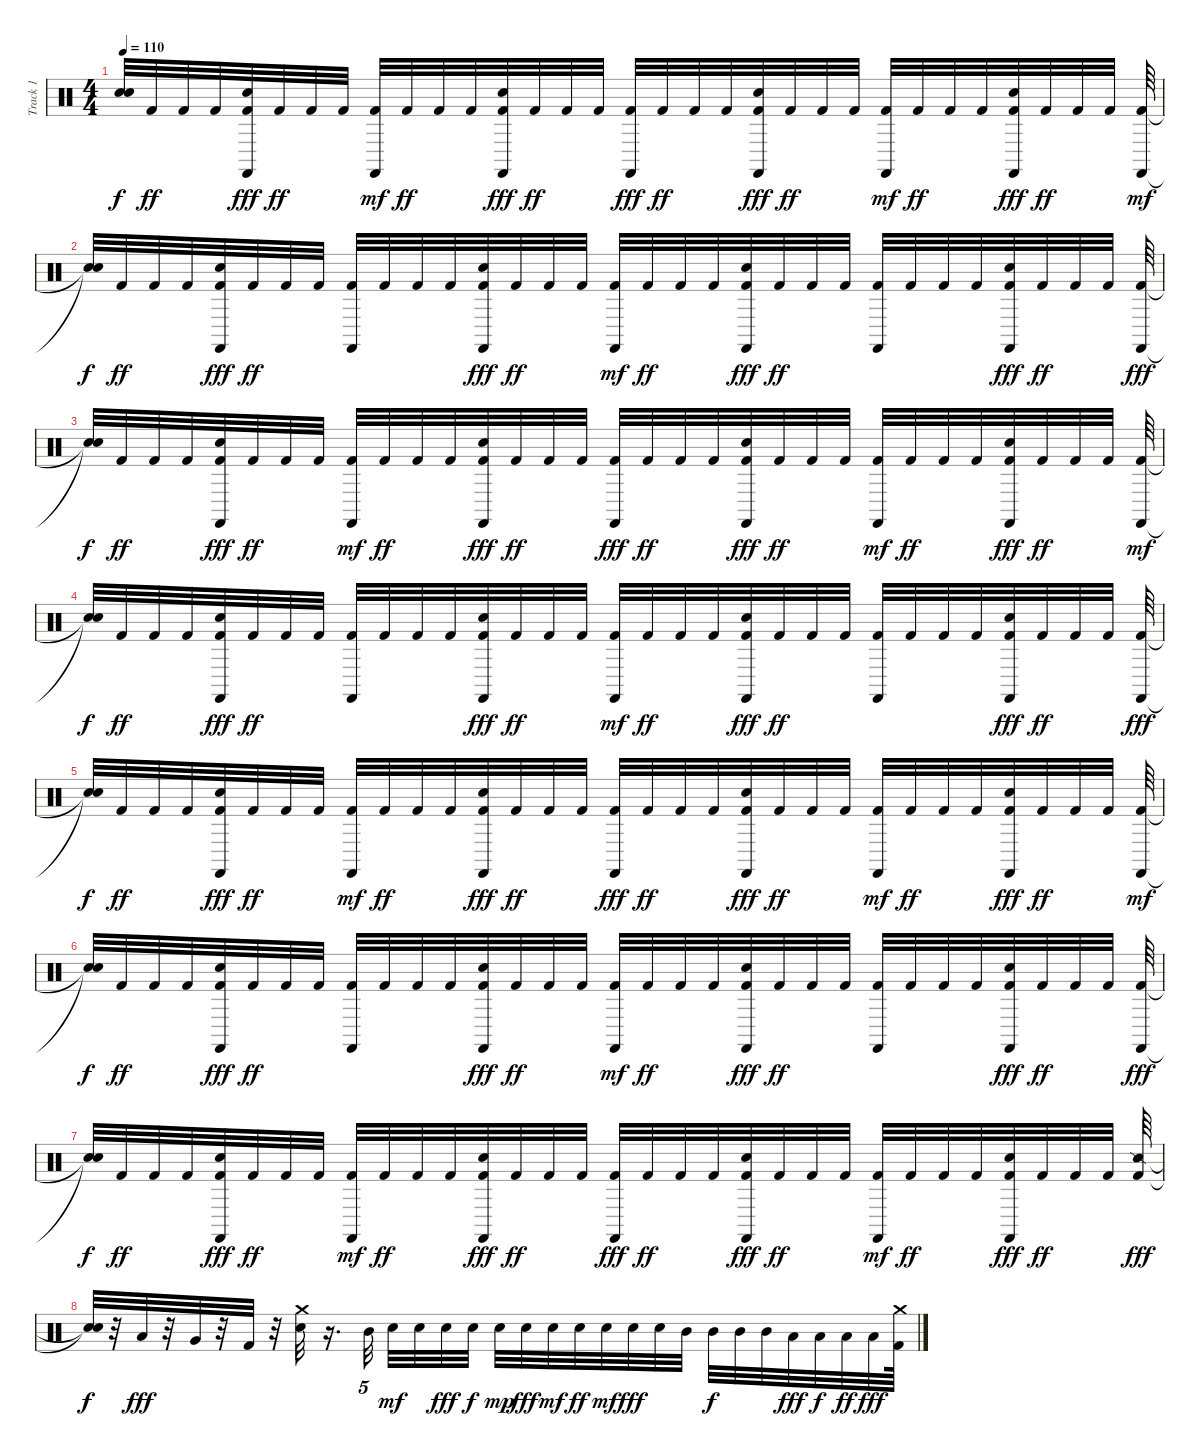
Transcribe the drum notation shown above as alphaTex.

\track ("Track 1" "Track 1") {mute instrument percussion}
\staff {score}
\articulation defaults
\ts (4 4)
\tempo 110
\clef neutral
\ks c
("Snare (hit)"{t} "Snare (hit)"{t}).32{dy f} "Kick (hit) 2".32{dy ff} "Kick (hit) 2".32 "Kick (hit) 2".32 ("Kick (hit) 2" "Castanets (hit)" "Snare (hit) 2").32{dy fff} "Kick (hit) 2".32{dy ff} "Kick (hit) 2".32 "Kick (hit) 2".32 ("Kick (hit) 2" "Castanets (hit)").32{dy mf} "Kick (hit) 2".32{dy ff} "Kick (hit) 2".32 "Kick (hit) 2".32 ("Kick (hit) 2" "Castanets (hit)" "Snare (hit) 2").32{dy fff} "Kick (hit) 2".32{dy ff} "Kick (hit) 2".32 "Kick (hit) 2".32 ("Castanets (hit)" "Kick (hit) 2").32{dy fff} "Kick (hit) 2".32{dy ff} "Kick (hit) 2".32 "Kick (hit) 2".32 ("Snare (hit) 2" "Kick (hit) 2" "Castanets (hit)").32{dy fff} "Kick (hit) 2".32{dy ff} "Kick (hit) 2".32 "Kick (hit) 2".32 ("Kick (hit) 2" "Castanets (hit)").32{dy mf} "Kick (hit) 2".32{dy ff} "Kick (hit) 2".32 "Kick (hit) 2".32 ("Kick (hit) 2" "Castanets (hit)" "Snare (hit) 2").32{dy fff} "Kick (hit) 2".32{dy ff} "Kick (hit) 2".32 "Kick (hit) 2".32 ("Kick (hit) 2" "Castanets (hit)").64{dy mf} |
("Snare (hit)"{t} "Snare (hit)"{t}).32{dy f} "Kick (hit) 2".32{dy ff} "Kick (hit) 2".32 "Kick (hit) 2".32 ("Kick (hit) 2" "Castanets (hit)" "Snare (hit) 2").32{dy fff} "Kick (hit) 2".32{dy ff} "Kick (hit) 2".32 "Kick (hit) 2".32 ("Castanets (hit)" "Kick (hit) 2").32 "Kick (hit) 2".32 "Kick (hit) 2".32 "Kick (hit) 2".32 ("Kick (hit) 2" "Castanets (hit)" "Snare (hit) 2").32{dy fff} "Kick (hit) 2".32{dy ff} "Kick (hit) 2".32 "Kick (hit) 2".32 ("Kick (hit) 2" "Castanets (hit)").32{dy mf} "Kick (hit) 2".32{dy ff} "Kick (hit) 2".32 "Kick (hit) 2".32 ("Kick (hit) 2" "Castanets (hit)" "Snare (hit) 2").32{dy fff} "Kick (hit) 2".32{dy ff} "Kick (hit) 2".32 "Kick (hit) 2".32 ("Castanets (hit)" "Kick (hit) 2").32 "Kick (hit) 2".32 "Kick (hit) 2".32 "Kick (hit) 2".32 ("Kick (hit) 2" "Snare (hit) 2" "Castanets (hit)").32{dy fff} "Kick (hit) 2".32{dy ff} "Kick (hit) 2".32 "Kick (hit) 2".32 ("Castanets (hit)" "Kick (hit) 2").64{dy fff} |
("Snare (hit)"{t} "Snare (hit)"{t}).32{dy f} "Kick (hit) 2".32{dy ff} "Kick (hit) 2".32 "Kick (hit) 2".32 ("Kick (hit) 2" "Castanets (hit)" "Snare (hit) 2").32{dy fff} "Kick (hit) 2".32{dy ff} "Kick (hit) 2".32 "Kick (hit) 2".32 ("Kick (hit) 2" "Castanets (hit)").32{dy mf} "Kick (hit) 2".32{dy ff} "Kick (hit) 2".32 "Kick (hit) 2".32 ("Kick (hit) 2" "Castanets (hit)" "Snare (hit) 2").32{dy fff} "Kick (hit) 2".32{dy ff} "Kick (hit) 2".32 "Kick (hit) 2".32 ("Castanets (hit)" "Kick (hit) 2").32{dy fff} "Kick (hit) 2".32{dy ff} "Kick (hit) 2".32 "Kick (hit) 2".32 ("Snare (hit) 2" "Kick (hit) 2" "Castanets (hit)").32{dy fff} "Kick (hit) 2".32{dy ff} "Kick (hit) 2".32 "Kick (hit) 2".32 ("Kick (hit) 2" "Castanets (hit)").32{dy mf} "Kick (hit) 2".32{dy ff} "Kick (hit) 2".32 "Kick (hit) 2".32 ("Kick (hit) 2" "Castanets (hit)" "Snare (hit) 2").32{dy fff} "Kick (hit) 2".32{dy ff} "Kick (hit) 2".32 "Kick (hit) 2".32 ("Kick (hit) 2" "Castanets (hit)").64{dy mf} |
("Snare (hit)"{t} "Snare (hit)"{t}).32{dy f} "Kick (hit) 2".32{dy ff} "Kick (hit) 2".32 "Kick (hit) 2".32 ("Kick (hit) 2" "Castanets (hit)" "Snare (hit) 2").32{dy fff} "Kick (hit) 2".32{dy ff} "Kick (hit) 2".32 "Kick (hit) 2".32 ("Castanets (hit)" "Kick (hit) 2").32 "Kick (hit) 2".32 "Kick (hit) 2".32 "Kick (hit) 2".32 ("Kick (hit) 2" "Castanets (hit)" "Snare (hit) 2").32{dy fff} "Kick (hit) 2".32{dy ff} "Kick (hit) 2".32 "Kick (hit) 2".32 ("Kick (hit) 2" "Castanets (hit)").32{dy mf} "Kick (hit) 2".32{dy ff} "Kick (hit) 2".32 "Kick (hit) 2".32 ("Kick (hit) 2" "Castanets (hit)" "Snare (hit) 2").32{dy fff} "Kick (hit) 2".32{dy ff} "Kick (hit) 2".32 "Kick (hit) 2".32 ("Castanets (hit)" "Kick (hit) 2").32 "Kick (hit) 2".32 "Kick (hit) 2".32 "Kick (hit) 2".32 ("Kick (hit) 2" "Snare (hit) 2" "Castanets (hit)").32{dy fff} "Kick (hit) 2".32{dy ff} "Kick (hit) 2".32 "Kick (hit) 2".32 ("Castanets (hit)" "Kick (hit) 2").64{dy fff} |
("Snare (hit)"{t} "Snare (hit)"{t}).32{dy f} "Kick (hit) 2".32{dy ff} "Kick (hit) 2".32 "Kick (hit) 2".32 ("Kick (hit) 2" "Castanets (hit)" "Snare (hit) 2").32{dy fff} "Kick (hit) 2".32{dy ff} "Kick (hit) 2".32 "Kick (hit) 2".32 ("Kick (hit) 2" "Castanets (hit)").32{dy mf} "Kick (hit) 2".32{dy ff} "Kick (hit) 2".32 "Kick (hit) 2".32 ("Kick (hit) 2" "Castanets (hit)" "Snare (hit) 2").32{dy fff} "Kick (hit) 2".32{dy ff} "Kick (hit) 2".32 "Kick (hit) 2".32 ("Castanets (hit)" "Kick (hit) 2").32{dy fff} "Kick (hit) 2".32{dy ff} "Kick (hit) 2".32 "Kick (hit) 2".32 ("Snare (hit) 2" "Kick (hit) 2" "Castanets (hit)").32{dy fff} "Kick (hit) 2".32{dy ff} "Kick (hit) 2".32 "Kick (hit) 2".32 ("Kick (hit) 2" "Castanets (hit)").32{dy mf} "Kick (hit) 2".32{dy ff} "Kick (hit) 2".32 "Kick (hit) 2".32 ("Kick (hit) 2" "Castanets (hit)" "Snare (hit) 2").32{dy fff} "Kick (hit) 2".32{dy ff} "Kick (hit) 2".32 "Kick (hit) 2".32 ("Kick (hit) 2" "Castanets (hit)").64{dy mf} |
("Snare (hit)"{t} "Snare (hit)"{t}).32{dy f} "Kick (hit) 2".32{dy ff} "Kick (hit) 2".32 "Kick (hit) 2".32 ("Kick (hit) 2" "Castanets (hit)" "Snare (hit) 2").32{dy fff} "Kick (hit) 2".32{dy ff} "Kick (hit) 2".32 "Kick (hit) 2".32 ("Castanets (hit)" "Kick (hit) 2").32 "Kick (hit) 2".32 "Kick (hit) 2".32 "Kick (hit) 2".32 ("Kick (hit) 2" "Castanets (hit)" "Snare (hit) 2").32{dy fff} "Kick (hit) 2".32{dy ff} "Kick (hit) 2".32 "Kick (hit) 2".32 ("Kick (hit) 2" "Castanets (hit)").32{dy mf} "Kick (hit) 2".32{dy ff} "Kick (hit) 2".32 "Kick (hit) 2".32 ("Kick (hit) 2" "Castanets (hit)" "Snare (hit) 2").32{dy fff} "Kick (hit) 2".32{dy ff} "Kick (hit) 2".32 "Kick (hit) 2".32 ("Castanets (hit)" "Kick (hit) 2").32 "Kick (hit) 2".32 "Kick (hit) 2".32 "Kick (hit) 2".32 ("Kick (hit) 2" "Snare (hit) 2" "Castanets (hit)").32{dy fff} "Kick (hit) 2".32{dy ff} "Kick (hit) 2".32 "Kick (hit) 2".32 ("Castanets (hit)" "Kick (hit) 2").64{dy fff} |
("Snare (hit)"{t} "Snare (hit)"{t}).32{dy f} "Kick (hit) 2".32{dy ff} "Kick (hit) 2".32 "Kick (hit) 2".32 ("Kick (hit) 2" "Castanets (hit)" "Snare (hit) 2").32{dy fff} "Kick (hit) 2".32{dy ff} "Kick (hit) 2".32 "Kick (hit) 2".32 ("Kick (hit) 2" "Castanets (hit)").32{dy mf} "Kick (hit) 2".32{dy ff} "Kick (hit) 2".32 "Kick (hit) 2".32 ("Kick (hit) 2" "Castanets (hit)" "Snare (hit) 2").32{dy fff} "Kick (hit) 2".32{dy ff} "Kick (hit) 2".32 "Kick (hit) 2".32 ("Castanets (hit)" "Kick (hit) 2").32{dy fff} "Kick (hit) 2".32{dy ff} "Kick (hit) 2".32 "Kick (hit) 2".32 ("Snare (hit) 2" "Kick (hit) 2" "Castanets (hit)").32{dy fff} "Kick (hit) 2".32{dy ff} "Kick (hit) 2".32 "Kick (hit) 2".32 ("Kick (hit) 2" "Castanets (hit)").32{dy mf} "Kick (hit) 2".32{dy ff} "Kick (hit) 2".32 "Kick (hit) 2".32 ("Kick (hit) 2" "Castanets (hit)" "Snare (hit) 2").32{dy fff} "Kick (hit) 2".32{dy ff} "Kick (hit) 2".32 "Kick (hit) 2".32 ("Kick (hit) 2" "Snare (side stick) 2").64{dy fff} |
("Snare (hit)"{t} "Snare (hit)"{t}).32{dy f} r.32 "Low Tom (hit)".32{dy fff} r.32 "Very Low Tom (hit)".32 r.32 "Kick (hit) 2".32 r.32 ("Snare (hit) 2" "Crash medium (hit)").32 r.16{d} "Mid Tom (hit)".32{tu (5 4) beam splitsecondary} "Snare (hit) 2".32{dy mf} "Snare (hit) 2".32 "Snare (hit) 2".32{dy fff} "Snare (hit) 2".32{dy f} "Snare (hit) 2".32{dy mp} "Snare (hit) 2".32{dy fff} "Snare (hit) 2".32{dy mf} "Snare (hit) 2".32{dy ff} "Snare (hit) 2".32{dy mf} "Snare (hit) 2".32{dy fff} "Snare (hit) 2".32 "Mid Tom (hit)".32 "Mid Tom (hit)".32{dy f} "Mid Tom (hit)".32 "Mid Tom (hit)".32 "Low Tom (hit)".32{dy fff} "Low Tom (hit)".32{dy f} "Low Tom (hit)".32{dy ff} "Low Tom (hit)".32{dy fff} ("Kick (hit) 2" "Crash medium (hit)").64
